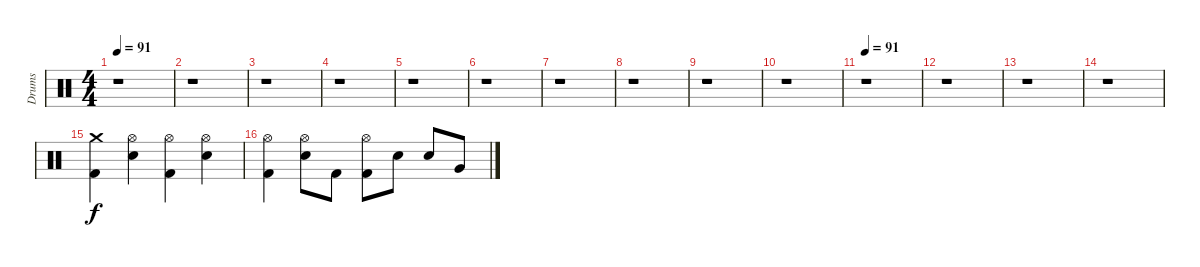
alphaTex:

\track ("Drums" "Drums") {instrument percussion}
\staff {score}
\articulation defaults
\ts (4 4)
\tempo 91
\clef neutral
\ks c
r.1{dy f} |
r.1 |
r.1 |
r.1 |
r.1 |
r.1 |
r.1 |
r.1 |
r.1 |
r.1 |
\tempo 91
r.1 |
r.1 |
r.1 |
r.1 |
("Kick (hit) 2" "Crash medium (hit)").4 ("Hi-Hat (open)" "Electric Snare (hit)").4 ("Hi-Hat (open)" "Kick (hit) 2").4 ("Hi-Hat (open)" "Electric Snare (hit)").4 |
("Hi-Hat (open)" "Kick (hit) 2").4 ("Hi-Hat (open)" "Electric Snare (hit)").8 "Kick (hit) 2".8 ("Hi-Hat (open)" "Kick (hit) 2").8 "Electric Snare (hit)".8 "Electric Snare (hit)".8 "Very Low Tom (hit)".8
